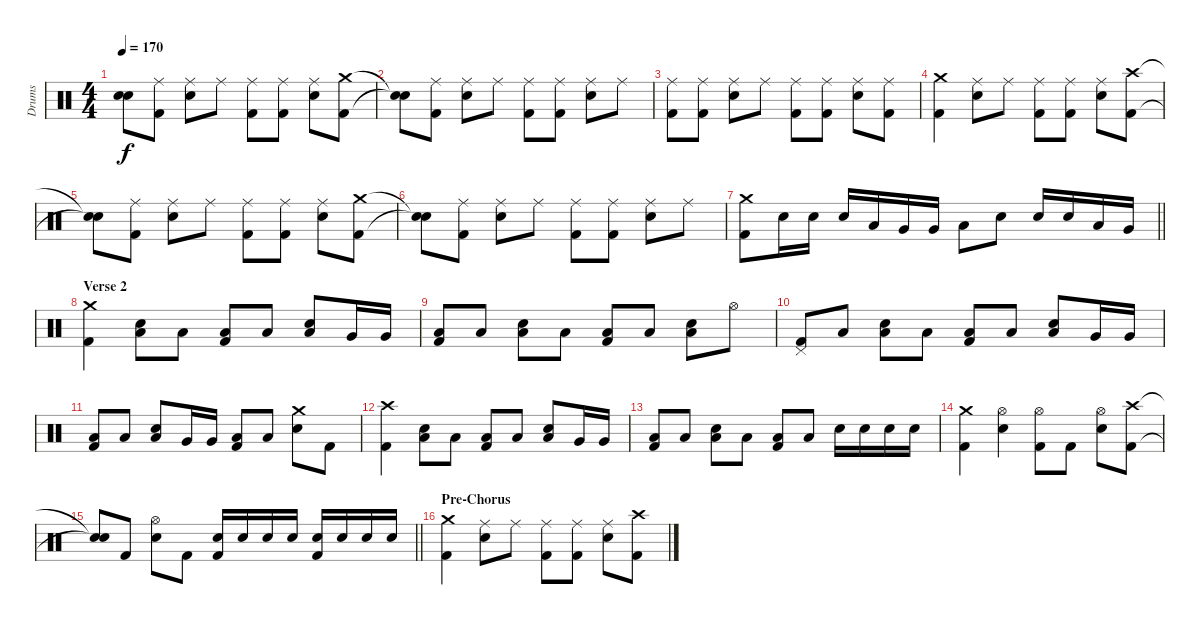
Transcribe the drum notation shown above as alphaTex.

\track ("Drums" "Drums") {instrument percussion}
\staff {score}
\articulation defaults
\ts (4 4)
\tempo 170
\clef neutral
\ks c
("Snare (hit)"{t} "Snare (hit)"{t}).8{dy f} ("Ride (middle)" "Kick (hit) 2").8 ("Ride (middle)" "Electric Snare (hit)").8 "Ride (middle)".8 ("Ride (middle)" "Kick (hit) 2").8 ("Ride (middle)" "Kick (hit) 2").8 ("Ride (middle)" "Electric Snare (hit)").8 ("Crash medium (hit)" "Kick (hit) 2").8 |
("Snare (hit)"{t} "Snare (hit)"{t}).8 ("Ride (middle)" "Kick (hit) 2").8 ("Ride (middle)" "Electric Snare (hit)").8 "Ride (middle)".8 ("Ride (middle)" "Kick (hit) 2").8 ("Ride (middle)" "Kick (hit) 2").8 ("Ride (middle)" "Electric Snare (hit)").8 "Ride (middle)".8 |
("Ride (middle)" "Kick (hit) 2").8 ("Ride (middle)" "Kick (hit) 2").8 ("Ride (middle)" "Electric Snare (hit)").8 "Ride (middle)".8 ("Ride (middle)" "Kick (hit) 2").8 ("Ride (middle)" "Kick (hit) 2").8 ("Ride (middle)" "Electric Snare (hit)").8 ("Ride (middle)" "Kick (hit) 2").8 |
("Crash medium (hit)" "Kick (hit) 2").4 ("Ride (middle)" "Electric Snare (hit)").8 "Ride (middle)".8 ("Ride (middle)" "Kick (hit) 2").8 ("Ride (middle)" "Kick (hit) 2").8 ("Ride (middle)" "Electric Snare (hit)").8 ("Crash high (hit)" "Kick (hit) 2").8 |
("Snare (hit)"{t} "Snare (hit)"{t}).8 ("Ride (middle)" "Kick (hit) 2").8 ("Ride (middle)" "Electric Snare (hit)").8 "Ride (middle)".8 ("Ride (middle)" "Kick (hit) 2").8 ("Ride (middle)" "Kick (hit) 2").8 ("Ride (middle)" "Electric Snare (hit)").8 ("Crash medium (hit)" "Kick (hit) 2").8 |
("Snare (hit)"{t} "Snare (hit)"{t}).8 ("Ride (middle)" "Kick (hit) 2").8 ("Ride (middle)" "Electric Snare (hit)").8 "Ride (middle)".8 ("Ride (middle)" "Kick (hit) 2").8 ("Ride (middle)" "Kick (hit) 2").8 ("Ride (middle)" "Electric Snare (hit)").8 "Ride (middle)".8 |
\barLineRight lightlight
("Crash medium (hit)" "Kick (hit) 2").8 "Electric Snare (hit)".16 "Electric Snare (hit)".16 "Electric Snare (hit)".16 "Low Tom (hit)".16 "Very Low Tom (hit)".16 "Very Low Tom (hit)".16 "Low Tom (hit)".8 "Electric Snare (hit)".8 "Electric Snare (hit)".16 "Electric Snare (hit)".16 "Low Tom (hit)".16 "Very Low Tom (hit)".16 |
\section ("" "Verse 2")
("Crash medium (hit)" "Kick (hit) 2").4 ("Low Floor Tom (hit)" "Electric Snare (hit)").8 "Low Floor Tom (hit)".8 ("Low Floor Tom (hit)" "Kick (hit) 2").8 "Low Floor Tom (hit)".8 ("Low Floor Tom (hit)" "Electric Snare (hit)").8 "Very Low Tom (hit)".16 "Very Low Tom (hit)".16 |
("Low Floor Tom (hit)" "Kick (hit) 2").8 "Low Floor Tom (hit)".8 ("Low Floor Tom (hit)" "Electric Snare (hit)").8 "Low Floor Tom (hit)".8 ("Low Floor Tom (hit)" "Kick (hit) 2").8 "Low Floor Tom (hit)".8 ("Low Floor Tom (hit)" "Electric Snare (hit)").8 "Hi-Hat (open)".8 |
("Pedal Hi-Hat (hit)" "Kick (hit) 2").8 "Low Floor Tom (hit)".8 ("Low Floor Tom (hit)" "Electric Snare (hit)").8 "Low Floor Tom (hit)".8 ("Low Floor Tom (hit)" "Kick (hit) 2").8 "Low Floor Tom (hit)".8 ("Low Floor Tom (hit)" "Electric Snare (hit)").8 "Very Low Tom (hit)".16 "Very Low Tom (hit)".16 |
("Low Floor Tom (hit)" "Kick (hit) 2").8 "Low Floor Tom (hit)".8 ("Low Floor Tom (hit)" "Electric Snare (hit)").8 "Very Low Tom (hit)".16 "Very Low Tom (hit)".16 ("Low Floor Tom (hit)" "Kick (hit) 2").8 "Low Floor Tom (hit)".8 ("Crash medium (hit)" "Electric Snare (hit)").8 "Kick (hit) 2".8 |
("Crash high (hit)" "Kick (hit) 2").4 ("Low Floor Tom (hit)" "Electric Snare (hit)").8 "Low Floor Tom (hit)".8 ("Low Floor Tom (hit)" "Kick (hit) 2").8 "Low Floor Tom (hit)".8 ("Low Floor Tom (hit)" "Electric Snare (hit)").8 "Very Low Tom (hit)".16 "Very Low Tom (hit)".16 |
("Low Floor Tom (hit)" "Kick (hit) 2").8 "Low Floor Tom (hit)".8 ("Low Floor Tom (hit)" "Electric Snare (hit)").8 "Low Floor Tom (hit)".8 ("Low Floor Tom (hit)" "Kick (hit) 2").8 "Low Floor Tom (hit)".8 "Electric Snare (hit)".16 "Electric Snare (hit)".16 "Electric Snare (hit)".16 "Electric Snare (hit)".16 |
("Crash medium (hit)" "Kick (hit) 2").4 ("Hi-Hat (open)" "Electric Snare (hit)").4 ("Hi-Hat (open)" "Kick (hit) 2").8 "Kick (hit) 2".8 ("Hi-Hat (open)" "Electric Snare (hit)").8 ("Crash high (hit)" "Kick (hit) 2").8 |
\barLineRight lightlight
("Snare (hit)"{t} "Snare (hit)"{t}).8 "Kick (hit) 2".8 ("Hi-Hat (open)" "Electric Snare (hit)").8 "Kick (hit) 2".8 ("Electric Snare (hit)" "Kick (hit) 2").16 "Electric Snare (hit)".16 "Electric Snare (hit)".16 "Electric Snare (hit)".16 ("Electric Snare (hit)" "Kick (hit) 2").16 "Electric Snare (hit)".16 "Electric Snare (hit)".16 "Electric Snare (hit)".16 |
\section ("" "Pre-Chorus")
("Crash medium (hit)" "Kick (hit) 2").4 ("Ride (middle)" "Electric Snare (hit)").8 "Ride (middle)".8 ("Ride (middle)" "Kick (hit) 2").8 ("Ride (middle)" "Kick (hit) 2").8 ("Ride (middle)" "Electric Snare (hit)").8 ("Crash high (hit)" "Kick (hit) 2").8
